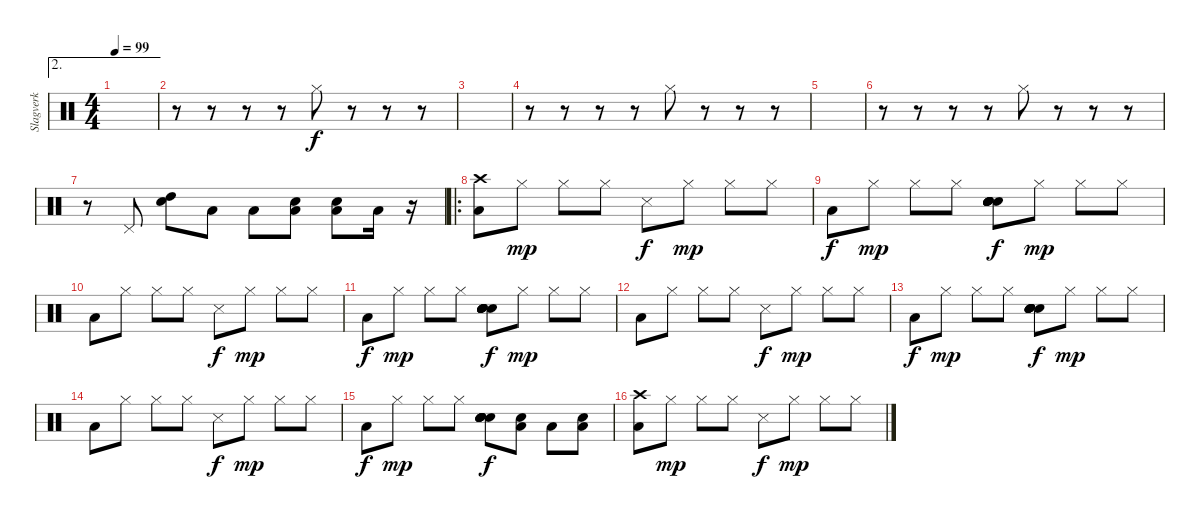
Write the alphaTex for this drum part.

\track ("Slagverk" "Slagverk") {instrument percussion}
\staff {score}
\articulation defaults
\ae 2
\ts (4 4)
\tempo 99
\clef neutral
\ks c
|
r.8 r.8 r.8 r.8 "Hi-Hat (closed)".8 r.8 r.8 r.8 |
|
r.8 r.8 r.8 r.8 "Hi-Hat (closed)".8 r.8 r.8 r.8 |
|
r.8 r.8 r.8 r.8 "Hi-Hat (closed)".8 r.8 r.8 r.8 |
r.8 "Pedal Hi-Hat (hit)".8 ("Snare (hit) 2" "High Tom (hit)").8 "Low Tom (hit)".8 "Low Floor Tom (hit)".8 ("Snare (hit) 2" "Low Floor Tom (hit)").8 ("Snare (hit) 2" "Low Floor Tom (hit)").8 "Low Floor Tom (hit)".16 r.16 |
\ro
("Crash high (hit)" "Low Floor Tom (hit)").8 "Hi-Hat (closed)".8{dy mp} "Hi-Hat (closed)".8 "Hi-Hat (closed)".8 "Snare (side stick) 3".8{dy f} "Hi-Hat (closed)".8{dy mp} "Hi-Hat (closed)".8 "Hi-Hat (closed)".8 |
"Low Tom (hit)".8{dy f} "Hi-Hat (closed)".8{dy mp} "Hi-Hat (closed)".8 "Hi-Hat (closed)".8 ("Snare (hit) 2" "Snare (hit) 2" "Snare (hit) 2" "Snare (hit) 2" "Electric Snare (hit)" "Snare (hit) 2").8{dy f} "Hi-Hat (closed)".8{dy mp} "Hi-Hat (closed)".8 "Hi-Hat (closed)".8 |
"Low Tom (hit)".8 "Hi-Hat (closed)".8 "Hi-Hat (closed)".8 "Hi-Hat (closed)".8 "Snare (side stick) 3".8{dy f} "Hi-Hat (closed)".8{dy mp} "Hi-Hat (closed)".8 "Hi-Hat (closed)".8 |
"Low Tom (hit)".8{dy f} "Hi-Hat (closed)".8{dy mp} "Hi-Hat (closed)".8 "Hi-Hat (closed)".8 ("Snare (hit) 2" "Snare (hit) 2" "Snare (hit) 2" "Snare (hit) 2" "Electric Snare (hit)" "Snare (hit) 2").8{dy f} "Hi-Hat (closed)".8{dy mp} "Hi-Hat (closed)".8 "Hi-Hat (closed)".8 |
"Low Tom (hit)".8 "Hi-Hat (closed)".8 "Hi-Hat (closed)".8 "Hi-Hat (closed)".8 "Snare (side stick) 3".8{dy f} "Hi-Hat (closed)".8{dy mp} "Hi-Hat (closed)".8 "Hi-Hat (closed)".8 |
"Low Tom (hit)".8{dy f} "Hi-Hat (closed)".8{dy mp} "Hi-Hat (closed)".8 "Hi-Hat (closed)".8 ("Snare (hit) 2" "Snare (hit) 2" "Snare (hit) 2" "Snare (hit) 2" "Electric Snare (hit)" "Snare (hit) 2").8{dy f} "Hi-Hat (closed)".8{dy mp} "Hi-Hat (closed)".8 "Hi-Hat (closed)".8 |
"Low Tom (hit)".8 "Hi-Hat (closed)".8 "Hi-Hat (closed)".8 "Hi-Hat (closed)".8 "Snare (side stick) 3".8{dy f} "Hi-Hat (closed)".8{dy mp} "Hi-Hat (closed)".8 "Hi-Hat (closed)".8 |
"Low Tom (hit)".8{dy f} "Hi-Hat (closed)".8{dy mp} "Hi-Hat (closed)".8 "Hi-Hat (closed)".8 ("Snare (hit) 2" "Snare (hit) 2" "Snare (hit) 2" "Snare (hit) 2" "Electric Snare (hit)" "Snare (hit) 2").8{dy f} ("Low Floor Tom (hit)" "Snare (hit) 2").8 "Low Floor Tom (hit)".8 ("Low Floor Tom (hit)" "Snare (hit) 2").8 |
("Crash high (hit)" "Low Floor Tom (hit)").8 "Hi-Hat (closed)".8{dy mp} "Hi-Hat (closed)".8 "Hi-Hat (closed)".8 "Snare (side stick) 3".8{dy f} "Hi-Hat (closed)".8{dy mp} "Hi-Hat (closed)".8 "Hi-Hat (closed)".8
